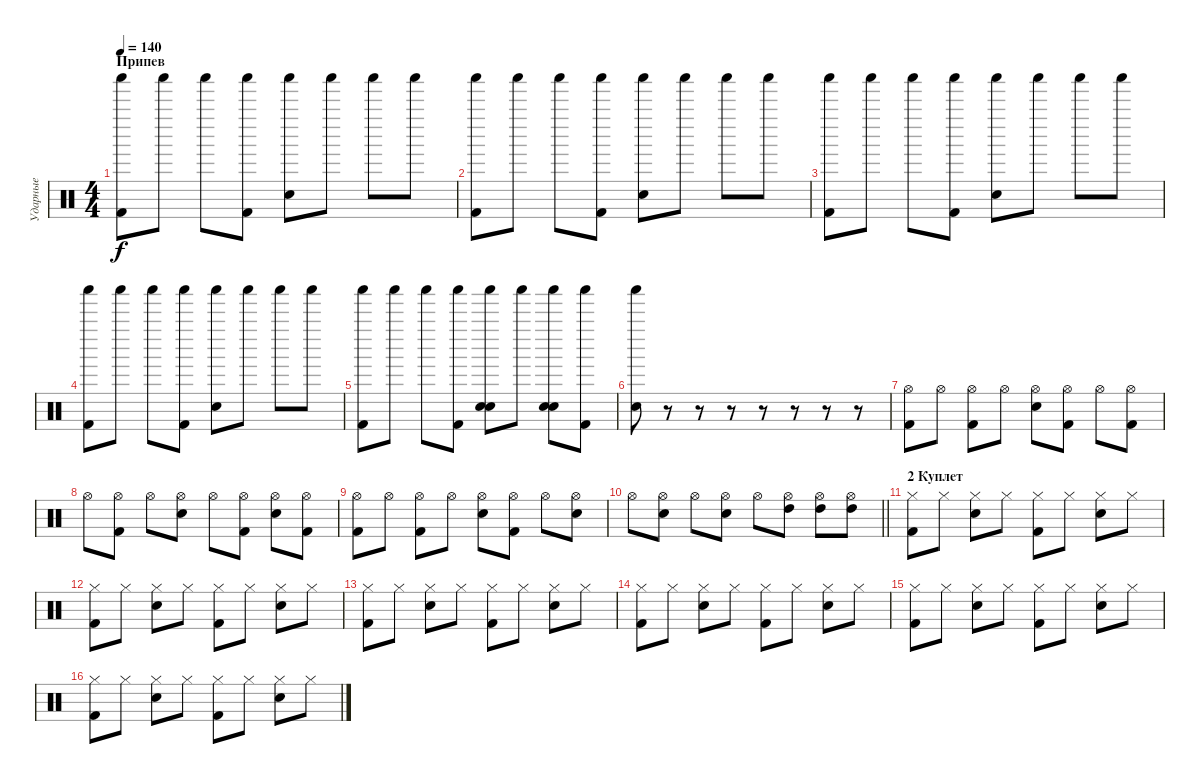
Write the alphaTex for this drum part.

\track ("Ударные" "Ударные") {instrument percussion}
\staff {score}
\articulation defaults
\ts (4 4)
\section ("" "Припев")
\tempo 140
\clef neutral
\ks c
("Shaker (hit)" "Kick (hit) 2").8{dy f} "Shaker (hit)".8 "Shaker (hit)".8 ("Shaker (hit)" "Kick (hit) 2").8 ("Shaker (hit)" "Electric Snare (hit)").8 "Shaker (hit)".8 "Shaker (hit)".8 "Shaker (hit)".8 |
("Shaker (hit)" "Kick (hit) 2").8 "Shaker (hit)".8 "Shaker (hit)".8 ("Shaker (hit)" "Kick (hit) 2").8 ("Shaker (hit)" "Electric Snare (hit)").8 "Shaker (hit)".8 "Shaker (hit)".8 "Shaker (hit)".8 |
("Shaker (hit)" "Kick (hit) 2").8 "Shaker (hit)".8 "Shaker (hit)".8 ("Shaker (hit)" "Kick (hit) 2").8 ("Shaker (hit)" "Electric Snare (hit)").8 "Shaker (hit)".8 "Shaker (hit)".8 "Shaker (hit)".8 |
("Shaker (hit)" "Kick (hit) 2").8 "Shaker (hit)".8 "Shaker (hit)".8 ("Shaker (hit)" "Kick (hit) 2").8 ("Shaker (hit)" "Electric Snare (hit)").8 "Shaker (hit)".8 "Shaker (hit)".8 "Shaker (hit)".8 |
("Shaker (hit)" "Kick (hit) 2").8 "Shaker (hit)".8 "Shaker (hit)".8 ("Shaker (hit)" "Kick (hit) 2").8 ("Shaker (hit)" "Electric Snare (hit)" "Electric Snare (hit)").8 "Shaker (hit)".8 ("Shaker (hit)" "Electric Snare (hit)" "Electric Snare (hit)").8 ("Shaker (hit)" "Kick (hit) 2").8 |
("Shaker (hit)" "Electric Snare (hit)").8 r.8 r.8 r.8 r.8 r.8 r.8 r.8 |
("Hi-Hat (open)" "Kick (hit) 2").8 "Hi-Hat (open)".8 ("Hi-Hat (open)" "Kick (hit) 2").8 "Hi-Hat (open)".8 ("Hi-Hat (open)" "Electric Snare (hit)").8 ("Hi-Hat (open)" "Kick (hit) 2").8 "Hi-Hat (open)".8 ("Hi-Hat (open)" "Kick (hit) 2").8 |
"Hi-Hat (open)".8 ("Hi-Hat (open)" "Kick (hit) 2").8 "Hi-Hat (open)".8 ("Hi-Hat (open)" "Electric Snare (hit)").8 "Hi-Hat (open)".8 ("Hi-Hat (open)" "Kick (hit) 2").8 ("Hi-Hat (open)" "Electric Snare (hit)").8 ("Hi-Hat (open)" "Kick (hit) 2").8 |
("Hi-Hat (open)" "Kick (hit) 2").8 "Hi-Hat (open)".8 ("Hi-Hat (open)" "Kick (hit) 2").8 "Hi-Hat (open)".8 ("Hi-Hat (open)" "Electric Snare (hit)").8 ("Hi-Hat (open)" "Kick (hit) 2").8 "Hi-Hat (open)".8 ("Hi-Hat (open)" "Electric Snare (hit)").8 |
\barLineRight lightlight "Hi-Hat (open)".8
("Hi-Hat (open)" "Electric Snare (hit)").8 "Hi-Hat (open)".8 ("Hi-Hat (open)" "Electric Snare (hit)").8 "Hi-Hat (open)".8 ("Hi-Hat (open)" "High Tom (hit)").8 ("Hi-Hat (open)" "High Tom (hit)").8 ("Hi-Hat (open)" "High Tom (hit)").8 |
\section ("" "2 Куплет")
("Hi-Hat (closed)" "Kick (hit) 2").8 "Hi-Hat (closed)".8 ("Hi-Hat (closed)" "Electric Snare (hit)").8 "Hi-Hat (closed)".8 ("Hi-Hat (closed)" "Kick (hit) 2").8 "Hi-Hat (closed)".8 ("Hi-Hat (closed)" "Electric Snare (hit)").8 "Hi-Hat (closed)".8 |
("Hi-Hat (closed)" "Kick (hit) 2").8 "Hi-Hat (closed)".8 ("Hi-Hat (closed)" "Electric Snare (hit)").8 "Hi-Hat (closed)".8 ("Hi-Hat (closed)" "Kick (hit) 2").8 "Hi-Hat (closed)".8 ("Hi-Hat (closed)" "Electric Snare (hit)").8 "Hi-Hat (closed)".8 |
("Hi-Hat (closed)" "Kick (hit) 2").8 "Hi-Hat (closed)".8 ("Hi-Hat (closed)" "Electric Snare (hit)").8 "Hi-Hat (closed)".8 ("Hi-Hat (closed)" "Kick (hit) 2").8 "Hi-Hat (closed)".8 ("Hi-Hat (closed)" "Electric Snare (hit)").8 "Hi-Hat (closed)".8 |
("Hi-Hat (closed)" "Kick (hit) 2").8 "Hi-Hat (closed)".8 ("Hi-Hat (closed)" "Electric Snare (hit)").8 "Hi-Hat (closed)".8 ("Hi-Hat (closed)" "Kick (hit) 2").8 "Hi-Hat (closed)".8 ("Hi-Hat (closed)" "Electric Snare (hit)").8 "Hi-Hat (closed)".8 |
("Hi-Hat (closed)" "Kick (hit) 2").8 "Hi-Hat (closed)".8 ("Hi-Hat (closed)" "Electric Snare (hit)").8 "Hi-Hat (closed)".8 ("Hi-Hat (closed)" "Kick (hit) 2").8 "Hi-Hat (closed)".8 ("Hi-Hat (closed)" "Electric Snare (hit)").8 "Hi-Hat (closed)".8 |
("Hi-Hat (closed)" "Kick (hit) 2").8 "Hi-Hat (closed)".8 ("Hi-Hat (closed)" "Electric Snare (hit)").8 "Hi-Hat (closed)".8 ("Hi-Hat (closed)" "Kick (hit) 2").8 "Hi-Hat (closed)".8 ("Hi-Hat (closed)" "Electric Snare (hit)").8 "Hi-Hat (closed)".8
